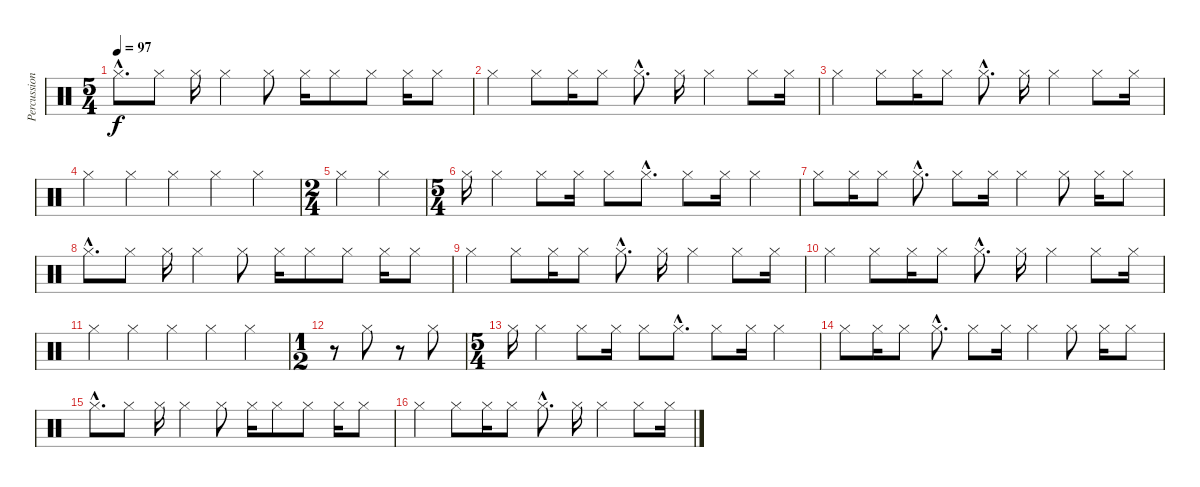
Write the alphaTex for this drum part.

\track ("Percussions" "Percussion") {instrument percussion}
\staff {score}
\articulation defaults
\ts (5 4)
\tempo 97
\clef neutral
\ks c "Hi-Hat (closed)"{hac}.8{d dy f} "Hi-Hat (closed)".8 "Hi-Hat (closed)".16 "Hi-Hat (closed)".4 "Hi-Hat (closed)".8 "Hi-Hat (closed)".16 "Hi-Hat (closed)".8 "Hi-Hat (closed)".8 "Hi-Hat (closed)".16 "Hi-Hat (closed)".8
|
"Hi-Hat (closed)".4 "Hi-Hat (closed)".8 "Hi-Hat (closed)".16 "Hi-Hat (closed)".8 "Hi-Hat (closed)"{hac}.8{d} "Hi-Hat (closed)".16 "Hi-Hat (closed)".4 "Hi-Hat (closed)".8 "Hi-Hat (closed)".16 |
"Hi-Hat (closed)".4 "Hi-Hat (closed)".8 "Hi-Hat (closed)".16 "Hi-Hat (closed)".8 "Hi-Hat (closed)"{hac}.8{d} "Hi-Hat (closed)".16 "Hi-Hat (closed)".4 "Hi-Hat (closed)".8 "Hi-Hat (closed)".16 |
"Hi-Hat (closed)".4 "Hi-Hat (closed)".4 "Hi-Hat (closed)".4 "Hi-Hat (closed)".4 "Hi-Hat (closed)".4 |
\ts (2 4)
"Hi-Hat (closed)".4 "Hi-Hat (closed)".4 |
\ts (5 4)
"Hi-Hat (closed)".16{volume 13} "Hi-Hat (closed)".4 "Hi-Hat (closed)".8 "Hi-Hat (closed)".16 "Hi-Hat (closed)".8 "Hi-Hat (closed)"{hac}.8{d} "Hi-Hat (closed)".8 "Hi-Hat (closed)".16 "Hi-Hat (closed)".4 |
"Hi-Hat (closed)".8 "Hi-Hat (closed)".16 "Hi-Hat (closed)".8 "Hi-Hat (closed)"{hac}.8{d} "Hi-Hat (closed)".8 "Hi-Hat (closed)".16 "Hi-Hat (closed)".4 "Hi-Hat (closed)".8 "Hi-Hat (closed)".16 "Hi-Hat (closed)".8 |
"Hi-Hat (closed)"{hac}.8{d} "Hi-Hat (closed)".8 "Hi-Hat (closed)".16 "Hi-Hat (closed)".4 "Hi-Hat (closed)".8 "Hi-Hat (closed)".16 "Hi-Hat (closed)".8 "Hi-Hat (closed)".8 "Hi-Hat (closed)".16 "Hi-Hat (closed)".8 |
"Hi-Hat (closed)".4 "Hi-Hat (closed)".8 "Hi-Hat (closed)".16 "Hi-Hat (closed)".8 "Hi-Hat (closed)"{hac}.8{d} "Hi-Hat (closed)".16 "Hi-Hat (closed)".4 "Hi-Hat (closed)".8 "Hi-Hat (closed)".16 |
"Hi-Hat (closed)".4 "Hi-Hat (closed)".8 "Hi-Hat (closed)".16 "Hi-Hat (closed)".8 "Hi-Hat (closed)"{hac}.8{d} "Hi-Hat (closed)".16 "Hi-Hat (closed)".4 "Hi-Hat (closed)".8 "Hi-Hat (closed)".16 |
"Hi-Hat (closed)".4 "Hi-Hat (closed)".4 "Hi-Hat (closed)".4 "Hi-Hat (closed)".4 "Hi-Hat (closed)".4 |
\ts (1 2)
r.8 "Hi-Hat (closed)".8 r.8 "Hi-Hat (closed)".8 |
\ts (5 4)
"Hi-Hat (closed)".16{volume 13} "Hi-Hat (closed)".4 "Hi-Hat (closed)".8 "Hi-Hat (closed)".16 "Hi-Hat (closed)".8 "Hi-Hat (closed)"{hac}.8{d} "Hi-Hat (closed)".8 "Hi-Hat (closed)".16 "Hi-Hat (closed)".4 |
"Hi-Hat (closed)".8 "Hi-Hat (closed)".16 "Hi-Hat (closed)".8 "Hi-Hat (closed)"{hac}.8{d} "Hi-Hat (closed)".8 "Hi-Hat (closed)".16 "Hi-Hat (closed)".4 "Hi-Hat (closed)".8 "Hi-Hat (closed)".16 "Hi-Hat (closed)".8 |
"Hi-Hat (closed)"{hac}.8{d} "Hi-Hat (closed)".8 "Hi-Hat (closed)".16 "Hi-Hat (closed)".4 "Hi-Hat (closed)".8 "Hi-Hat (closed)".16 "Hi-Hat (closed)".8 "Hi-Hat (closed)".8 "Hi-Hat (closed)".16 "Hi-Hat (closed)".8 |
"Hi-Hat (closed)".4 "Hi-Hat (closed)".8 "Hi-Hat (closed)".16 "Hi-Hat (closed)".8 "Hi-Hat (closed)"{hac}.8{d} "Hi-Hat (closed)".16 "Hi-Hat (closed)".4 "Hi-Hat (closed)".8 "Hi-Hat (closed)".16
